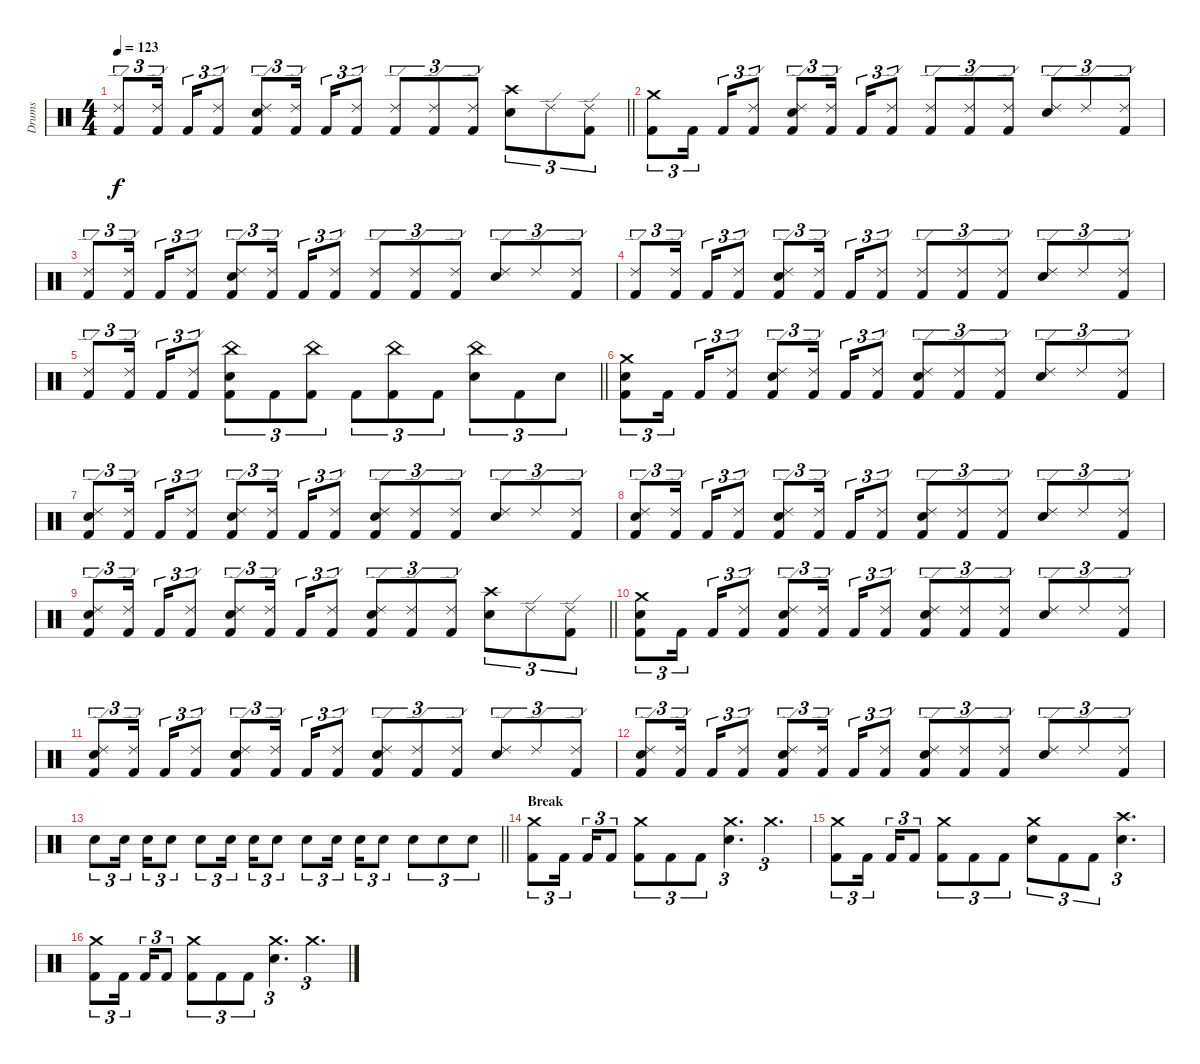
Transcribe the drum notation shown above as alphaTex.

\track ("Drums" "Drums") {instrument percussion}
\staff {score}
\articulation defaults
\ts (4 4)
\tempo 123
\clef neutral
\barLineRight lightlight
\ks c
("Kick (hit) 2" "Ride (edge) 2").8{tu (3 2) dy f} ("Kick (hit) 2" "Ride (edge) 2").16{tu (3 2) beam splitsecondary} "Kick (hit) 2".16{tu (3 2)} ("Kick (hit) 2" "Ride (edge) 2").8{tu (3 2)} ("Kick (hit) 2" "Snare (hit) 2" "Ride (edge) 2").8{tu (3 2)} ("Kick (hit) 2" "Ride (edge) 2").16{tu (3 2) beam splitsecondary} "Kick (hit) 2".16{tu (3 2)} ("Kick (hit) 2" "Ride (edge) 2").8{tu (3 2)} ("Kick (hit) 2" "Ride (edge) 2").8{tu (3 2)} ("Kick (hit) 2" "Ride (edge) 2").8{tu (3 2)} ("Kick (hit) 2" "Ride (edge) 2").8{tu (3 2)} ("Snare (hit) 2" "Crash high (hit)").8{tu (3 2)} "Ride (edge) 2".8{tu (3 2)} ("Kick (hit) 2" "Ride (edge) 2").8{tu (3 2)} |
("Kick (hit) 2" "Crash medium (hit)").8{tu (3 2)} "Kick (hit) 2".16{tu (3 2) beam splitsecondary} "Kick (hit) 2".16{tu (3 2)} ("Kick (hit) 2" "Ride (edge) 2").8{tu (3 2)} ("Kick (hit) 2" "Snare (hit) 2" "Ride (edge) 2").8{tu (3 2)} ("Kick (hit) 2" "Ride (edge) 2").16{tu (3 2) beam splitsecondary} "Kick (hit) 2".16{tu (3 2)} ("Kick (hit) 2" "Ride (edge) 2").8{tu (3 2)} ("Kick (hit) 2" "Ride (edge) 2").8{tu (3 2)} ("Kick (hit) 2" "Ride (edge) 2").8{tu (3 2)} ("Kick (hit) 2" "Ride (edge) 2").8{tu (3 2)} ("Snare (hit) 2" "Ride (edge) 2").8{tu (3 2)} "Ride (edge) 2".8{tu (3 2)} ("Kick (hit) 2" "Ride (edge) 2").8{tu (3 2)} |
("Kick (hit) 2" "Ride (edge) 2").8{tu (3 2)} ("Kick (hit) 2" "Ride (edge) 2").16{tu (3 2) beam splitsecondary} "Kick (hit) 2".16{tu (3 2)} ("Kick (hit) 2" "Ride (edge) 2").8{tu (3 2)} ("Kick (hit) 2" "Snare (hit) 2" "Ride (edge) 2").8{tu (3 2)} ("Kick (hit) 2" "Ride (edge) 2").16{tu (3 2) beam splitsecondary} "Kick (hit) 2".16{tu (3 2)} ("Kick (hit) 2" "Ride (edge) 2").8{tu (3 2)} ("Kick (hit) 2" "Ride (edge) 2").8{tu (3 2)} ("Kick (hit) 2" "Ride (edge) 2").8{tu (3 2)} ("Kick (hit) 2" "Ride (edge) 2").8{tu (3 2)} ("Snare (hit) 2" "Ride (edge) 2").8{tu (3 2)} "Ride (edge) 2".8{tu (3 2)} ("Kick (hit) 2" "Ride (edge) 2").8{tu (3 2)} |
("Kick (hit) 2" "Ride (edge) 2").8{tu (3 2)} ("Kick (hit) 2" "Ride (edge) 2").16{tu (3 2) beam splitsecondary} "Kick (hit) 2".16{tu (3 2)} ("Kick (hit) 2" "Ride (edge) 2").8{tu (3 2)} ("Kick (hit) 2" "Snare (hit) 2" "Ride (edge) 2").8{tu (3 2)} ("Kick (hit) 2" "Ride (edge) 2").16{tu (3 2) beam splitsecondary} "Kick (hit) 2".16{tu (3 2)} ("Kick (hit) 2" "Ride (edge) 2").8{tu (3 2)} ("Kick (hit) 2" "Ride (edge) 2").8{tu (3 2)} ("Kick (hit) 2" "Ride (edge) 2").8{tu (3 2)} ("Kick (hit) 2" "Ride (edge) 2").8{tu (3 2)} ("Snare (hit) 2" "Ride (edge) 2").8{tu (3 2)} "Ride (edge) 2".8{tu (3 2)} ("Kick (hit) 2" "Ride (edge) 2").8{tu (3 2)} |
\barLineRight lightlight
("Kick (hit) 2" "Ride (edge) 2").8{tu (3 2)} ("Kick (hit) 2" "Ride (edge) 2").16{tu (3 2) beam splitsecondary} "Kick (hit) 2".16{tu (3 2)} ("Kick (hit) 2" "Ride (edge) 2").8{tu (3 2)} ("Kick (hit) 2" "Snare (hit) 2" "China (hit)").8{tu (3 2)} "Kick (hit) 2".8{tu (3 2)} ("Kick (hit) 2" "China (hit)").8{tu (3 2)} "Kick (hit) 2".8{tu (3 2)} ("Kick (hit) 2" "China (hit)").8{tu (3 2)} "Kick (hit) 2".8{tu (3 2)} ("Snare (hit) 2" "China (hit)").8{tu (3 2)} "Kick (hit) 2".8{tu (3 2)} "Snare (hit) 2".8{tu (3 2)} |
\section ("" "")
("Kick (hit) 2" "Snare (hit) 2" "Crash medium (hit)").8{tu (3 2)} "Kick (hit) 2".16{tu (3 2) beam splitsecondary} "Kick (hit) 2".16{tu (3 2)} ("Kick (hit) 2" "Ride (edge) 2").8{tu (3 2)} ("Kick (hit) 2" "Snare (hit) 2" "Ride (edge) 2").8{tu (3 2)} ("Kick (hit) 2" "Ride (edge) 2").16{tu (3 2) beam splitsecondary} "Kick (hit) 2".16{tu (3 2)} ("Kick (hit) 2" "Ride (edge) 2").8{tu (3 2)} ("Kick (hit) 2" "Snare (hit) 2" "Ride (edge) 2").8{tu (3 2)} ("Kick (hit) 2" "Ride (edge) 2").8{tu (3 2)} ("Kick (hit) 2" "Ride (edge) 2").8{tu (3 2)} ("Snare (hit) 2" "Ride (edge) 2").8{tu (3 2)} "Ride (edge) 2".8{tu (3 2)} ("Kick (hit) 2" "Ride (edge) 2").8{tu (3 2)} |
("Kick (hit) 2" "Snare (hit) 2" "Ride (edge) 2").8{tu (3 2)} ("Kick (hit) 2" "Ride (edge) 2").16{tu (3 2) beam splitsecondary} "Kick (hit) 2".16{tu (3 2)} ("Kick (hit) 2" "Ride (edge) 2").8{tu (3 2)} ("Kick (hit) 2" "Snare (hit) 2" "Ride (edge) 2").8{tu (3 2)} ("Kick (hit) 2" "Ride (edge) 2").16{tu (3 2) beam splitsecondary} "Kick (hit) 2".16{tu (3 2)} ("Kick (hit) 2" "Ride (edge) 2").8{tu (3 2)} ("Kick (hit) 2" "Snare (hit) 2" "Ride (edge) 2").8{tu (3 2)} ("Kick (hit) 2" "Ride (edge) 2").8{tu (3 2)} ("Kick (hit) 2" "Ride (edge) 2").8{tu (3 2)} ("Snare (hit) 2" "Ride (edge) 2").8{tu (3 2)} "Ride (edge) 2".8{tu (3 2)} ("Kick (hit) 2" "Ride (edge) 2").8{tu (3 2)} |
("Kick (hit) 2" "Snare (hit) 2" "Ride (edge) 2").8{tu (3 2)} ("Kick (hit) 2" "Ride (edge) 2").16{tu (3 2) beam splitsecondary} "Kick (hit) 2".16{tu (3 2)} ("Kick (hit) 2" "Ride (edge) 2").8{tu (3 2)} ("Kick (hit) 2" "Snare (hit) 2" "Ride (edge) 2").8{tu (3 2)} ("Kick (hit) 2" "Ride (edge) 2").16{tu (3 2) beam splitsecondary} "Kick (hit) 2".16{tu (3 2)} ("Kick (hit) 2" "Ride (edge) 2").8{tu (3 2)} ("Kick (hit) 2" "Snare (hit) 2" "Ride (edge) 2").8{tu (3 2)} ("Kick (hit) 2" "Ride (edge) 2").8{tu (3 2)} ("Kick (hit) 2" "Ride (edge) 2").8{tu (3 2)} ("Snare (hit) 2" "Ride (edge) 2").8{tu (3 2)} "Ride (edge) 2".8{tu (3 2)} ("Kick (hit) 2" "Ride (edge) 2").8{tu (3 2)} |
\barLineRight lightlight
("Kick (hit) 2" "Snare (hit) 2" "Ride (edge) 2").8{tu (3 2)} ("Kick (hit) 2" "Ride (edge) 2").16{tu (3 2) beam splitsecondary} "Kick (hit) 2".16{tu (3 2)} ("Kick (hit) 2" "Ride (edge) 2").8{tu (3 2)} ("Kick (hit) 2" "Snare (hit) 2" "Ride (edge) 2").8{tu (3 2)} ("Kick (hit) 2" "Ride (edge) 2").16{tu (3 2) beam splitsecondary} "Kick (hit) 2".16{tu (3 2)} ("Kick (hit) 2" "Ride (edge) 2").8{tu (3 2)} ("Kick (hit) 2" "Snare (hit) 2" "Ride (edge) 2").8{tu (3 2)} ("Kick (hit) 2" "Ride (edge) 2").8{tu (3 2)} ("Kick (hit) 2" "Ride (edge) 2").8{tu (3 2)} ("Snare (hit) 2" "Crash high (hit)").8{tu (3 2)} "Ride (edge) 2".8{tu (3 2)} ("Kick (hit) 2" "Ride (edge) 2").8{tu (3 2)} |
("Kick (hit) 2" "Snare (hit) 2" "Crash medium (hit)").8{tu (3 2)} "Kick (hit) 2".16{tu (3 2) beam splitsecondary} "Kick (hit) 2".16{tu (3 2)} ("Kick (hit) 2" "Ride (edge) 2").8{tu (3 2)} ("Kick (hit) 2" "Snare (hit) 2" "Ride (edge) 2").8{tu (3 2)} ("Kick (hit) 2" "Ride (edge) 2").16{tu (3 2) beam splitsecondary} "Kick (hit) 2".16{tu (3 2)} ("Kick (hit) 2" "Ride (edge) 2").8{tu (3 2)} ("Kick (hit) 2" "Snare (hit) 2" "Ride (edge) 2").8{tu (3 2)} ("Kick (hit) 2" "Ride (edge) 2").8{tu (3 2)} ("Kick (hit) 2" "Ride (edge) 2").8{tu (3 2)} ("Snare (hit) 2" "Ride (edge) 2").8{tu (3 2)} "Ride (edge) 2".8{tu (3 2)} ("Kick (hit) 2" "Ride (edge) 2").8{tu (3 2)} |
("Kick (hit) 2" "Snare (hit) 2" "Ride (edge) 2").8{tu (3 2)} ("Kick (hit) 2" "Ride (edge) 2").16{tu (3 2) beam splitsecondary} "Kick (hit) 2".16{tu (3 2)} ("Kick (hit) 2" "Ride (edge) 2").8{tu (3 2)} ("Kick (hit) 2" "Snare (hit) 2" "Ride (edge) 2").8{tu (3 2)} ("Kick (hit) 2" "Ride (edge) 2").16{tu (3 2) beam splitsecondary} "Kick (hit) 2".16{tu (3 2)} ("Kick (hit) 2" "Ride (edge) 2").8{tu (3 2)} ("Kick (hit) 2" "Snare (hit) 2" "Ride (edge) 2").8{tu (3 2)} ("Kick (hit) 2" "Ride (edge) 2").8{tu (3 2)} ("Kick (hit) 2" "Ride (edge) 2").8{tu (3 2)} ("Snare (hit) 2" "Ride (edge) 2").8{tu (3 2)} "Ride (edge) 2".8{tu (3 2)} ("Kick (hit) 2" "Ride (edge) 2").8{tu (3 2)} |
("Kick (hit) 2" "Snare (hit) 2" "Ride (edge) 2").8{tu (3 2)} ("Kick (hit) 2" "Ride (edge) 2").16{tu (3 2) beam splitsecondary} "Kick (hit) 2".16{tu (3 2)} ("Kick (hit) 2" "Ride (edge) 2").8{tu (3 2)} ("Kick (hit) 2" "Snare (hit) 2" "Ride (edge) 2").8{tu (3 2)} ("Kick (hit) 2" "Ride (edge) 2").16{tu (3 2) beam splitsecondary} "Kick (hit) 2".16{tu (3 2)} ("Kick (hit) 2" "Ride (edge) 2").8{tu (3 2)} ("Kick (hit) 2" "Snare (hit) 2" "Ride (edge) 2").8{tu (3 2)} ("Kick (hit) 2" "Ride (edge) 2").8{tu (3 2)} ("Kick (hit) 2" "Ride (edge) 2").8{tu (3 2)} ("Snare (hit) 2" "Ride (edge) 2").8{tu (3 2)} "Ride (edge) 2".8{tu (3 2)} ("Kick (hit) 2" "Ride (edge) 2").8{tu (3 2)} |
\barLineRight lightlight "Snare (hit) 2".8{tu (3 2)} "Snare (hit) 2".16{tu (3 2) beam splitsecondary} "Snare (hit) 2".16{tu (3 2)} "Snare (hit) 2".8{tu (3 2)} "Snare (hit) 2".8{tu (3 2)} "Snare (hit) 2".16{tu (3 2) beam splitsecondary} "Snare (hit) 2".16{tu (3 2)} "Snare (hit) 2".8{tu (3 2)} "Snare (hit) 2".8{tu (3 2)} "Snare (hit) 2".16{tu (3 2) beam splitsecondary} "Snare (hit) 2".16{tu (3 2)} "Snare (hit) 2".8{tu (3 2)} "Snare (hit) 2".8{tu (3 2)} "Snare (hit) 2".8{tu (3 2)} "Snare (hit) 2".8{tu (3 2)}
|
\section ("" "Break")
("Kick (hit) 2" "Crash medium (hit)").8{tu (3 2)} "Kick (hit) 2".16{tu (3 2) beam splitsecondary} "Kick (hit) 2".16{tu (3 2)} "Kick (hit) 2".8{tu (3 2)} ("Kick (hit) 2" "Crash medium (hit)").8{tu (3 2)} "Kick (hit) 2".8{tu (3 2)} "Kick (hit) 2".8{tu (3 2)} ("Snare (hit) 2" "Crash medium (hit)").4{d tu (3 2)} "Crash medium (hit)".4{d tu (3 2)} |
("Kick (hit) 2" "Crash medium (hit)").8{tu (3 2)} "Kick (hit) 2".16{tu (3 2) beam splitsecondary} "Kick (hit) 2".16{tu (3 2)} "Kick (hit) 2".8{tu (3 2)} ("Kick (hit) 2" "Crash medium (hit)").8{tu (3 2)} "Kick (hit) 2".8{tu (3 2)} "Kick (hit) 2".8{tu (3 2)} ("Snare (hit) 2" "Crash medium (hit)").8{tu (3 2)} "Kick (hit) 2".8{tu (3 2)} "Kick (hit) 2".8{tu (3 2)} ("Snare (hit) 2" "Crash high (hit)").4{d tu (3 2)} |
("Kick (hit) 2" "Crash medium (hit)").8{tu (3 2)} "Kick (hit) 2".16{tu (3 2) beam splitsecondary} "Kick (hit) 2".16{tu (3 2)} "Kick (hit) 2".8{tu (3 2)} ("Kick (hit) 2" "Crash medium (hit)").8{tu (3 2)} "Kick (hit) 2".8{tu (3 2)} "Kick (hit) 2".8{tu (3 2)} ("Snare (hit) 2" "Crash medium (hit)").4{d tu (3 2)} "Crash medium (hit)".4{d tu (3 2)}
